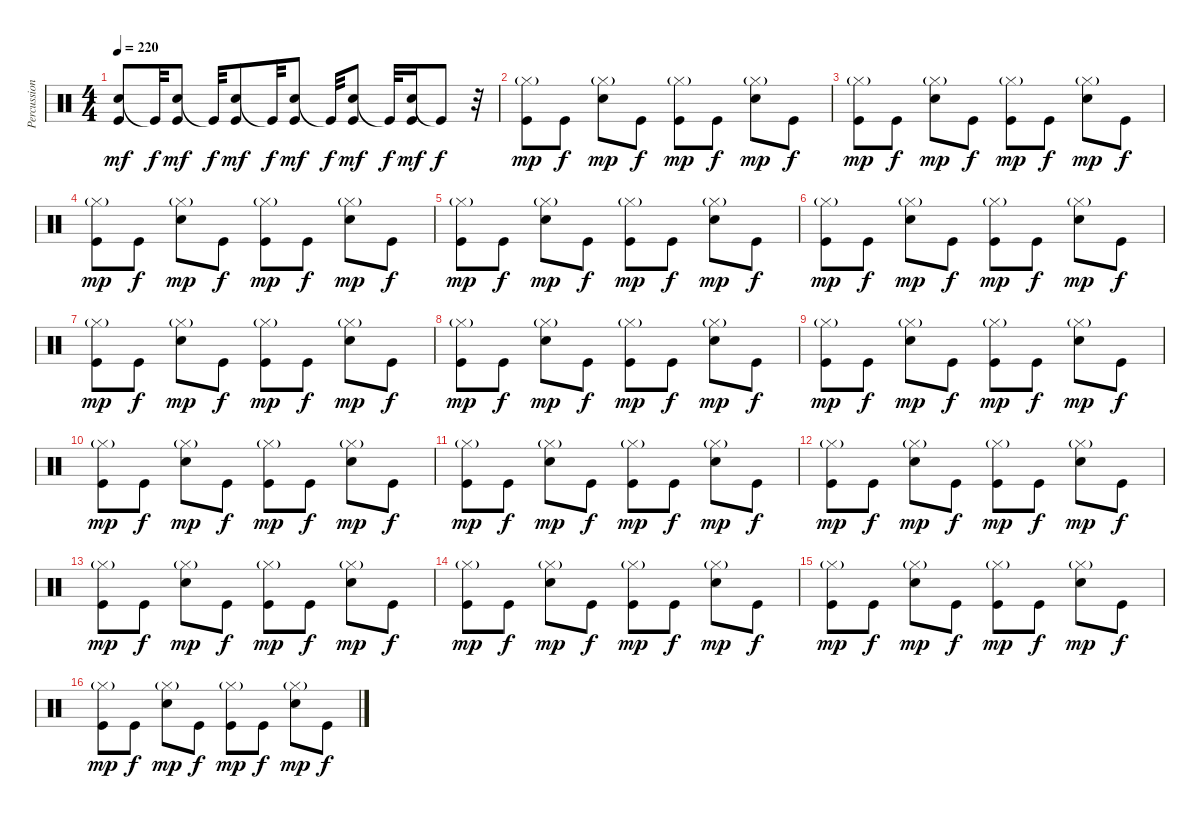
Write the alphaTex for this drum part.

\track ("Percussion" "Percussion") {instrument percussion}
\staff {score}
\articulation defaults
\ts (4 4)
\tempo 220
\clef neutral
\ks c
("Electric Snare (hit)" "Kick (hit)").8{dy mf} "Kick (hit)"{t}.32{dy f} ("Electric Snare (hit)" "Kick (hit)").8{dy mf} "Kick (hit)"{t}.32{dy f} ("Electric Snare (hit)" "Kick (hit)").8{dy mf} "Kick (hit)"{t}.32{dy f} ("Electric Snare (hit)" "Kick (hit)").8{dy mf} "Kick (hit)"{t}.32{dy f} ("Electric Snare (hit)" "Kick (hit)").8{dy mf} "Kick (hit)"{t}.32{dy f} ("Electric Snare (hit)" "Kick (hit)").16{dy mf} "Kick (hit)"{t}.8{dy f} r.32 |
("Hi-Hat (closed)"{g} "Kick (hit)").8{dy mp} "Kick (hit)".8{dy f} ("Hi-Hat (closed)"{g} "Electric Snare (hit)").8{dy mp} "Kick (hit)".8{dy f} ("Hi-Hat (closed)"{g} "Kick (hit)").8{dy mp} "Kick (hit)".8{dy f} ("Hi-Hat (closed)"{g} "Electric Snare (hit)").8{dy mp} "Kick (hit)".8{dy f} |
("Hi-Hat (closed)"{g} "Kick (hit)").8{dy mp} "Kick (hit)".8{dy f} ("Hi-Hat (closed)"{g} "Electric Snare (hit)").8{dy mp} "Kick (hit)".8{dy f} ("Hi-Hat (closed)"{g} "Kick (hit)").8{dy mp} "Kick (hit)".8{dy f} ("Hi-Hat (closed)"{g} "Electric Snare (hit)").8{dy mp} "Kick (hit)".8{dy f} |
("Hi-Hat (closed)"{g} "Kick (hit)").8{dy mp} "Kick (hit)".8{dy f} ("Hi-Hat (closed)"{g} "Electric Snare (hit)").8{dy mp} "Kick (hit)".8{dy f} ("Hi-Hat (closed)"{g} "Kick (hit)").8{dy mp} "Kick (hit)".8{dy f} ("Hi-Hat (closed)"{g} "Electric Snare (hit)").8{dy mp} "Kick (hit)".8{dy f} |
("Hi-Hat (closed)"{g} "Kick (hit)").8{dy mp} "Kick (hit)".8{dy f} ("Hi-Hat (closed)"{g} "Electric Snare (hit)").8{dy mp} "Kick (hit)".8{dy f} ("Hi-Hat (closed)"{g} "Kick (hit)").8{dy mp} "Kick (hit)".8{dy f} ("Hi-Hat (closed)"{g} "Electric Snare (hit)").8{dy mp} "Kick (hit)".8{dy f} |
("Hi-Hat (closed)"{g} "Kick (hit)").8{dy mp} "Kick (hit)".8{dy f} ("Hi-Hat (closed)"{g} "Electric Snare (hit)").8{dy mp} "Kick (hit)".8{dy f} ("Hi-Hat (closed)"{g} "Kick (hit)").8{dy mp} "Kick (hit)".8{dy f} ("Hi-Hat (closed)"{g} "Electric Snare (hit)").8{dy mp} "Kick (hit)".8{dy f} |
("Hi-Hat (closed)"{g} "Kick (hit)").8{dy mp} "Kick (hit)".8{dy f} ("Hi-Hat (closed)"{g} "Electric Snare (hit)").8{dy mp} "Kick (hit)".8{dy f} ("Hi-Hat (closed)"{g} "Kick (hit)").8{dy mp} "Kick (hit)".8{dy f} ("Hi-Hat (closed)"{g} "Electric Snare (hit)").8{dy mp} "Kick (hit)".8{dy f} |
("Hi-Hat (closed)"{g} "Kick (hit)").8{dy mp} "Kick (hit)".8{dy f} ("Hi-Hat (closed)"{g} "Electric Snare (hit)").8{dy mp} "Kick (hit)".8{dy f} ("Hi-Hat (closed)"{g} "Kick (hit)").8{dy mp} "Kick (hit)".8{dy f} ("Hi-Hat (closed)"{g} "Electric Snare (hit)").8{dy mp} "Kick (hit)".8{dy f} |
("Hi-Hat (closed)"{g} "Kick (hit)").8{dy mp} "Kick (hit)".8{dy f} ("Hi-Hat (closed)"{g} "Electric Snare (hit)").8{dy mp} "Kick (hit)".8{dy f} ("Hi-Hat (closed)"{g} "Kick (hit)").8{dy mp} "Kick (hit)".8{dy f} ("Hi-Hat (closed)"{g} "Electric Snare (hit)").8{dy mp} "Kick (hit)".8{dy f} |
("Hi-Hat (closed)"{g} "Kick (hit)").8{dy mp} "Kick (hit)".8{dy f} ("Hi-Hat (closed)"{g} "Electric Snare (hit)").8{dy mp} "Kick (hit)".8{dy f} ("Hi-Hat (closed)"{g} "Kick (hit)").8{dy mp} "Kick (hit)".8{dy f} ("Hi-Hat (closed)"{g} "Electric Snare (hit)").8{dy mp} "Kick (hit)".8{dy f} |
("Hi-Hat (closed)"{g} "Kick (hit)").8{dy mp} "Kick (hit)".8{dy f} ("Hi-Hat (closed)"{g} "Electric Snare (hit)").8{dy mp} "Kick (hit)".8{dy f} ("Hi-Hat (closed)"{g} "Kick (hit)").8{dy mp} "Kick (hit)".8{dy f} ("Hi-Hat (closed)"{g} "Electric Snare (hit)").8{dy mp} "Kick (hit)".8{dy f} |
("Hi-Hat (closed)"{g} "Kick (hit)").8{dy mp} "Kick (hit)".8{dy f} ("Hi-Hat (closed)"{g} "Electric Snare (hit)").8{dy mp} "Kick (hit)".8{dy f} ("Hi-Hat (closed)"{g} "Kick (hit)").8{dy mp} "Kick (hit)".8{dy f} ("Hi-Hat (closed)"{g} "Electric Snare (hit)").8{dy mp} "Kick (hit)".8{dy f} |
("Hi-Hat (closed)"{g} "Kick (hit)").8{dy mp} "Kick (hit)".8{dy f} ("Hi-Hat (closed)"{g} "Electric Snare (hit)").8{dy mp} "Kick (hit)".8{dy f} ("Hi-Hat (closed)"{g} "Kick (hit)").8{dy mp} "Kick (hit)".8{dy f} ("Hi-Hat (closed)"{g} "Electric Snare (hit)").8{dy mp} "Kick (hit)".8{dy f} |
("Hi-Hat (closed)"{g} "Kick (hit)").8{dy mp} "Kick (hit)".8{dy f} ("Hi-Hat (closed)"{g} "Electric Snare (hit)").8{dy mp} "Kick (hit)".8{dy f} ("Hi-Hat (closed)"{g} "Kick (hit)").8{dy mp} "Kick (hit)".8{dy f} ("Hi-Hat (closed)"{g} "Electric Snare (hit)").8{dy mp} "Kick (hit)".8{dy f} |
("Hi-Hat (closed)"{g} "Kick (hit)").8{dy mp} "Kick (hit)".8{dy f} ("Hi-Hat (closed)"{g} "Electric Snare (hit)").8{dy mp} "Kick (hit)".8{dy f} ("Hi-Hat (closed)"{g} "Kick (hit)").8{dy mp} "Kick (hit)".8{dy f} ("Hi-Hat (closed)"{g} "Electric Snare (hit)").8{dy mp} "Kick (hit)".8{dy f} |
("Hi-Hat (closed)"{g} "Kick (hit)").8{dy mp} "Kick (hit)".8{dy f} ("Hi-Hat (closed)"{g} "Electric Snare (hit)").8{dy mp} "Kick (hit)".8{dy f} ("Hi-Hat (closed)"{g} "Kick (hit)").8{dy mp} "Kick (hit)".8{dy f} ("Hi-Hat (closed)"{g} "Electric Snare (hit)").8{dy mp} "Kick (hit)".8{dy f}
